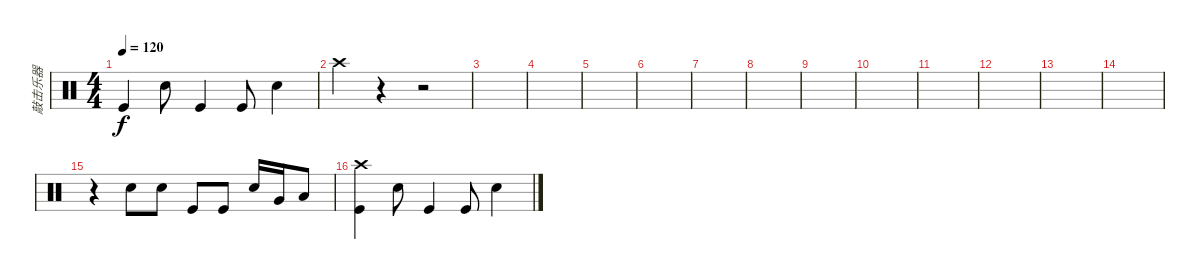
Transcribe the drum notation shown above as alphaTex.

\track ("敲击乐器" "敲击乐器") {instrument percussion}
\staff {score}
\articulation defaults
\ts (4 4)
\tempo 120
\clef neutral
\ks c "Kick (hit)".4{dy f} "Electric Snare (hit)".8 "Kick (hit)".4 "Kick (hit)".8 "Electric Snare (hit)".4
|
"Crash high (hit)".4 r.4 r.2 |
|
|
|
|
|
|
|
|
|
|
|
|
r.4 "Electric Snare (hit)".8 "Electric Snare (hit)".8 "Kick (hit)".8 "Kick (hit)".8 "Electric Snare (hit)".16 "Very Low Tom (hit)".16 "Low Floor Tom (hit)".8 |
("Kick (hit)" "Crash high (hit)").4 "Electric Snare (hit)".8 "Kick (hit)".4 "Kick (hit)".8 "Electric Snare (hit)".4
